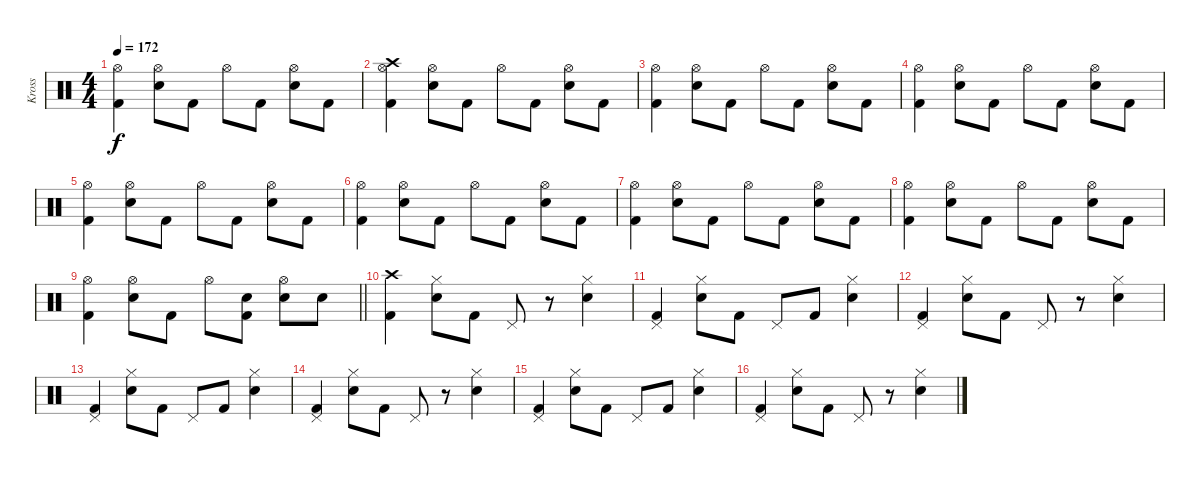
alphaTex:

\track ("Kross" "Kross") {instrument percussion}
\staff {score}
\articulation defaults
\ts (4 4)
\tempo 172
\clef neutral
\ks c
("Hi-Hat (open)" "Kick (hit) 2").4{dy f} ("Hi-Hat (open)" "Electric Snare (hit)").8 "Kick (hit) 2".8 "Hi-Hat (open)".8 "Kick (hit) 2".8 ("Hi-Hat (open)" "Electric Snare (hit)").8 "Kick (hit) 2".8 |
("Crash high (hit)" "Hi-Hat (open)" "Kick (hit) 2").4 ("Hi-Hat (open)" "Electric Snare (hit)").8 "Kick (hit) 2".8 "Hi-Hat (open)".8 "Kick (hit) 2".8 ("Hi-Hat (open)" "Electric Snare (hit)").8 "Kick (hit) 2".8 |
("Hi-Hat (open)" "Kick (hit) 2").4 ("Hi-Hat (open)" "Electric Snare (hit)").8 "Kick (hit) 2".8 "Hi-Hat (open)".8 "Kick (hit) 2".8 ("Hi-Hat (open)" "Electric Snare (hit)").8 "Kick (hit) 2".8 |
("Hi-Hat (open)" "Kick (hit) 2").4 ("Hi-Hat (open)" "Electric Snare (hit)").8 "Kick (hit) 2".8 "Hi-Hat (open)".8 "Kick (hit) 2".8 ("Hi-Hat (open)" "Electric Snare (hit)").8 "Kick (hit) 2".8 |
("Hi-Hat (open)" "Kick (hit) 2").4 ("Hi-Hat (open)" "Electric Snare (hit)").8 "Kick (hit) 2".8 "Hi-Hat (open)".8 "Kick (hit) 2".8 ("Hi-Hat (open)" "Electric Snare (hit)").8 "Kick (hit) 2".8 |
("Hi-Hat (open)" "Kick (hit) 2").4 ("Hi-Hat (open)" "Electric Snare (hit)").8 "Kick (hit) 2".8 "Hi-Hat (open)".8 "Kick (hit) 2".8 ("Hi-Hat (open)" "Electric Snare (hit)").8 "Kick (hit) 2".8 |
("Hi-Hat (open)" "Kick (hit) 2").4 ("Hi-Hat (open)" "Electric Snare (hit)").8 "Kick (hit) 2".8 "Hi-Hat (open)".8 "Kick (hit) 2".8 ("Hi-Hat (open)" "Electric Snare (hit)").8 "Kick (hit) 2".8 |
("Hi-Hat (open)" "Kick (hit) 2").4 ("Hi-Hat (open)" "Electric Snare (hit)").8 "Kick (hit) 2".8 "Hi-Hat (open)".8 "Kick (hit) 2".8 ("Hi-Hat (open)" "Electric Snare (hit)").8 "Kick (hit) 2".8 |
\barLineRight lightlight
("Hi-Hat (open)" "Kick (hit) 2").4 ("Hi-Hat (open)" "Electric Snare (hit)").8 "Kick (hit) 2".8 "Hi-Hat (open)".8 ("Electric Snare (hit)" "Kick (hit) 2").8 ("Hi-Hat (open)" "Electric Snare (hit)").8 "Electric Snare (hit)".8 |
("Crash high (hit)" "Kick (hit) 2").4 ("Hi-Hat (closed)" "Electric Snare (hit)").8 "Kick (hit) 2".8 "Pedal Hi-Hat (hit)".8 r.8 ("Hi-Hat (closed)" "Electric Snare (hit)").4 |
("Pedal Hi-Hat (hit)" "Kick (hit) 2").4 ("Hi-Hat (closed)" "Electric Snare (hit)").8 "Kick (hit) 2".8 "Pedal Hi-Hat (hit)".8 "Kick (hit) 2".8 ("Hi-Hat (closed)" "Electric Snare (hit)").4 |
("Pedal Hi-Hat (hit)" "Kick (hit) 2").4 ("Hi-Hat (closed)" "Electric Snare (hit)").8 "Kick (hit) 2".8 "Pedal Hi-Hat (hit)".8 r.8 ("Hi-Hat (closed)" "Electric Snare (hit)").4 |
("Pedal Hi-Hat (hit)" "Kick (hit) 2").4 ("Hi-Hat (closed)" "Electric Snare (hit)").8 "Kick (hit) 2".8 "Pedal Hi-Hat (hit)".8 "Kick (hit) 2".8 ("Hi-Hat (closed)" "Electric Snare (hit)").4 |
("Pedal Hi-Hat (hit)" "Kick (hit) 2").4 ("Hi-Hat (closed)" "Electric Snare (hit)").8 "Kick (hit) 2".8 "Pedal Hi-Hat (hit)".8 r.8 ("Hi-Hat (closed)" "Electric Snare (hit)").4 |
("Pedal Hi-Hat (hit)" "Kick (hit) 2").4 ("Hi-Hat (closed)" "Electric Snare (hit)").8 "Kick (hit) 2".8 "Pedal Hi-Hat (hit)".8 "Kick (hit) 2".8 ("Hi-Hat (closed)" "Electric Snare (hit)").4 |
("Pedal Hi-Hat (hit)" "Kick (hit) 2").4 ("Hi-Hat (closed)" "Electric Snare (hit)").8 "Kick (hit) 2".8 "Pedal Hi-Hat (hit)".8 r.8 ("Hi-Hat (closed)" "Electric Snare (hit)").4
